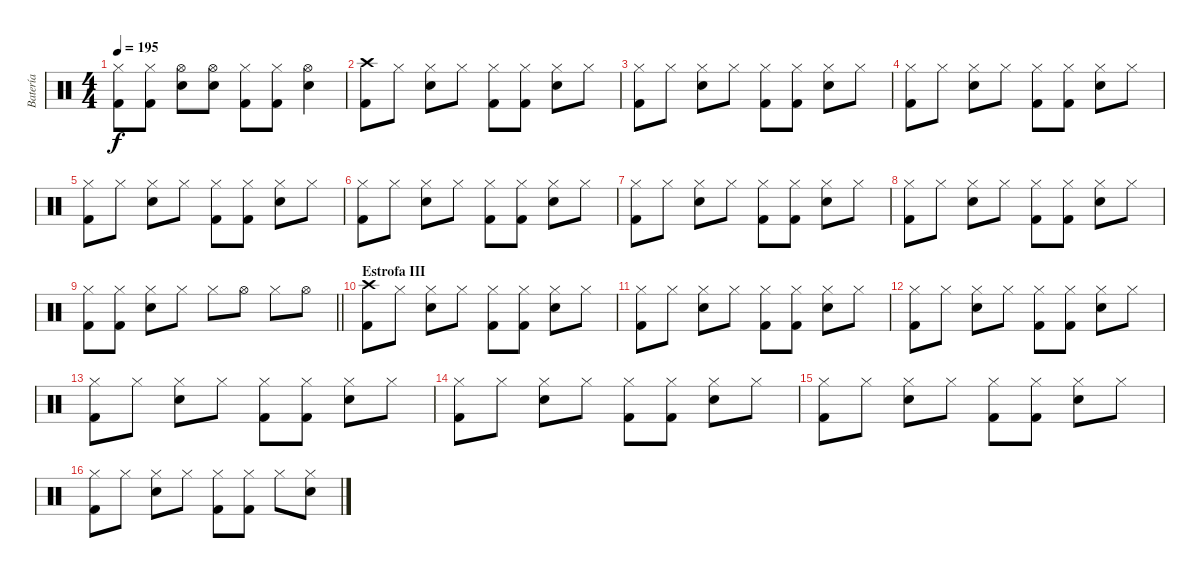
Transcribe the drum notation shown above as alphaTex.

\track ("Batería" "Batería") {instrument percussion}
\staff {score}
\articulation defaults
\ts (4 4)
\tempo 195
\clef neutral
\ks c
("Hi-Hat (closed)" "Kick (hit) 2").8{dy f} ("Hi-Hat (closed)" "Kick (hit) 2").8 ("Hi-Hat (open)" "Snare (hit) 2").8 ("Hi-Hat (open)" "Snare (hit) 2").8 ("Hi-Hat (closed)" "Kick (hit) 2").8 ("Hi-Hat (closed)" "Kick (hit) 2").8 ("Hi-Hat (open)" "Snare (hit) 2").4 |
("Crash high (hit)" "Kick (hit) 2").8 "Hi-Hat (closed)".8 ("Hi-Hat (closed)" "Snare (hit) 2").8 "Hi-Hat (closed)".8 ("Hi-Hat (closed)" "Kick (hit) 2").8 ("Hi-Hat (closed)" "Kick (hit) 2").8 ("Hi-Hat (closed)" "Snare (hit) 2").8 "Hi-Hat (closed)".8 |
("Hi-Hat (closed)" "Kick (hit) 2").8 "Hi-Hat (closed)".8 ("Hi-Hat (closed)" "Snare (hit) 2").8 "Hi-Hat (closed)".8 ("Hi-Hat (closed)" "Kick (hit) 2").8 ("Hi-Hat (closed)" "Kick (hit) 2").8 ("Hi-Hat (closed)" "Snare (hit) 2").8 "Hi-Hat (closed)".8 |
("Hi-Hat (closed)" "Kick (hit) 2").8 "Hi-Hat (closed)".8 ("Hi-Hat (closed)" "Snare (hit) 2").8 "Hi-Hat (closed)".8 ("Hi-Hat (closed)" "Kick (hit) 2").8 ("Hi-Hat (closed)" "Kick (hit) 2").8 ("Hi-Hat (closed)" "Snare (hit) 2").8 "Hi-Hat (closed)".8 |
("Hi-Hat (closed)" "Kick (hit) 2").8 "Hi-Hat (closed)".8 ("Hi-Hat (closed)" "Snare (hit) 2").8 "Hi-Hat (closed)".8 ("Hi-Hat (closed)" "Kick (hit) 2").8 ("Hi-Hat (closed)" "Kick (hit) 2").8 ("Hi-Hat (closed)" "Snare (hit) 2").8 "Hi-Hat (closed)".8 |
("Hi-Hat (closed)" "Kick (hit) 2").8 "Hi-Hat (closed)".8 ("Hi-Hat (closed)" "Snare (hit) 2").8 "Hi-Hat (closed)".8 ("Hi-Hat (closed)" "Kick (hit) 2").8 ("Hi-Hat (closed)" "Kick (hit) 2").8 ("Hi-Hat (closed)" "Snare (hit) 2").8 "Hi-Hat (closed)".8 |
("Hi-Hat (closed)" "Kick (hit) 2").8 "Hi-Hat (closed)".8 ("Hi-Hat (closed)" "Snare (hit) 2").8 "Hi-Hat (closed)".8 ("Hi-Hat (closed)" "Kick (hit) 2").8 ("Hi-Hat (closed)" "Kick (hit) 2").8 ("Hi-Hat (closed)" "Snare (hit) 2").8 "Hi-Hat (closed)".8 |
("Hi-Hat (closed)" "Kick (hit) 2").8 "Hi-Hat (closed)".8 ("Hi-Hat (closed)" "Snare (hit) 2").8 "Hi-Hat (closed)".8 ("Hi-Hat (closed)" "Kick (hit) 2").8 ("Hi-Hat (closed)" "Kick (hit) 2").8 ("Hi-Hat (closed)" "Snare (hit) 2").8 "Hi-Hat (closed)".8 |
\barLineRight lightlight
("Hi-Hat (closed)" "Kick (hit) 2").8 ("Hi-Hat (closed)" "Kick (hit) 2").8 ("Hi-Hat (closed)" "Snare (hit) 2").8 "Hi-Hat (closed)".8 "Hi-Hat (closed)".8 "Hi-Hat (open)".8 "Hi-Hat (closed)".8 "Hi-Hat (open)".8 |
\section ("" "Estrofa III")
("Crash high (hit)" "Kick (hit) 2").8 "Hi-Hat (closed)".8 ("Hi-Hat (closed)" "Snare (hit) 2").8 "Hi-Hat (closed)".8 ("Hi-Hat (closed)" "Kick (hit) 2").8 ("Hi-Hat (closed)" "Kick (hit) 2").8 ("Hi-Hat (closed)" "Snare (hit) 2").8 "Hi-Hat (closed)".8 |
("Hi-Hat (closed)" "Kick (hit) 2").8 "Hi-Hat (closed)".8 ("Hi-Hat (closed)" "Snare (hit) 2").8 "Hi-Hat (closed)".8 ("Hi-Hat (closed)" "Kick (hit) 2").8 ("Hi-Hat (closed)" "Kick (hit) 2").8 ("Hi-Hat (closed)" "Snare (hit) 2").8 "Hi-Hat (closed)".8 |
("Hi-Hat (closed)" "Kick (hit) 2").8 "Hi-Hat (closed)".8 ("Hi-Hat (closed)" "Snare (hit) 2").8 "Hi-Hat (closed)".8 ("Hi-Hat (closed)" "Kick (hit) 2").8 ("Hi-Hat (closed)" "Kick (hit) 2").8 ("Hi-Hat (closed)" "Snare (hit) 2").8 "Hi-Hat (closed)".8 |
("Hi-Hat (closed)" "Kick (hit) 2").8 "Hi-Hat (closed)".8 ("Hi-Hat (closed)" "Snare (hit) 2").8 "Hi-Hat (closed)".8 ("Hi-Hat (closed)" "Kick (hit) 2").8 ("Hi-Hat (closed)" "Kick (hit) 2").8 ("Hi-Hat (closed)" "Snare (hit) 2").8 "Hi-Hat (closed)".8 |
("Hi-Hat (closed)" "Kick (hit) 2").8 "Hi-Hat (closed)".8 ("Hi-Hat (closed)" "Snare (hit) 2").8 "Hi-Hat (closed)".8 ("Hi-Hat (closed)" "Kick (hit) 2").8 ("Hi-Hat (closed)" "Kick (hit) 2").8 ("Hi-Hat (closed)" "Snare (hit) 2").8 "Hi-Hat (closed)".8 |
("Hi-Hat (closed)" "Kick (hit) 2").8 "Hi-Hat (closed)".8 ("Hi-Hat (closed)" "Snare (hit) 2").8 "Hi-Hat (closed)".8 ("Hi-Hat (closed)" "Kick (hit) 2").8 ("Hi-Hat (closed)" "Kick (hit) 2").8 ("Hi-Hat (closed)" "Snare (hit) 2").8 "Hi-Hat (closed)".8 |
("Hi-Hat (closed)" "Kick (hit) 2").8 "Hi-Hat (closed)".8 ("Hi-Hat (closed)" "Snare (hit) 2").8 "Hi-Hat (closed)".8 ("Hi-Hat (closed)" "Kick (hit) 2").8 ("Hi-Hat (closed)" "Kick (hit) 2").8 "Hi-Hat (closed)".8 ("Hi-Hat (closed)" "Snare (hit) 2").8
